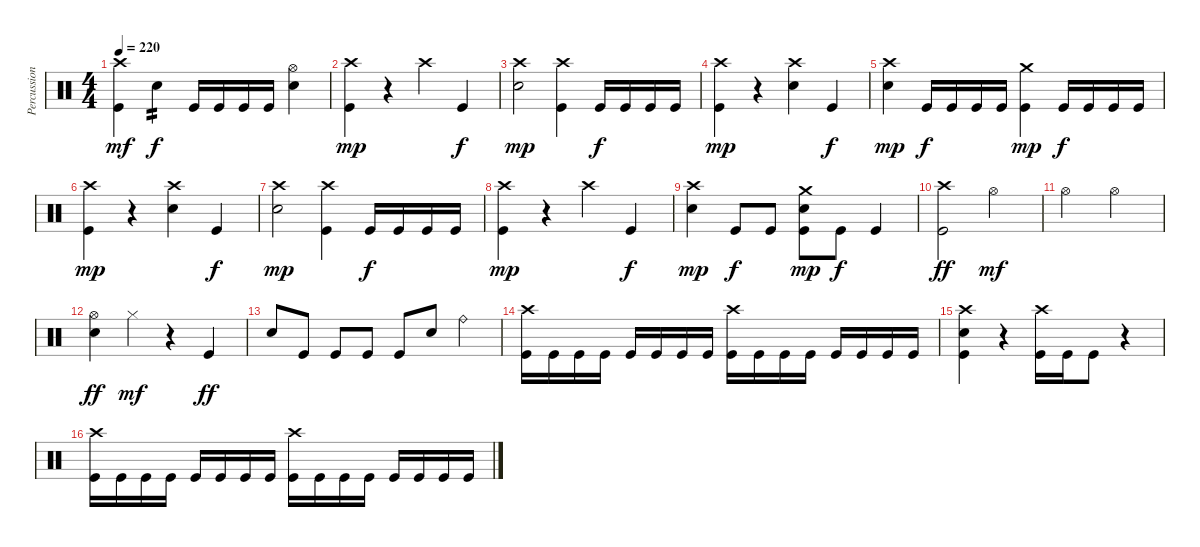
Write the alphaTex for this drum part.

\track ("Percussion" "Percussion") {instrument percussion}
\staff {score}
\articulation defaults
\ts (4 4)
\tempo 220
\clef neutral
\ks c
("Crash high (hit)" "Kick (hit)").4{dy mf} "Electric Snare (hit)".4{tp 2 dy f} "Kick (hit)".16 "Kick (hit)".16 "Kick (hit)".16 "Kick (hit)".16 ("Hi-Hat (open)" "Electric Snare (hit)").4 |
("Crash high (hit)" "Kick (hit)").4{dy mp} r.4 "Crash high (hit)".4 "Kick (hit)".4{dy f} |
("Crash high (hit)" "Electric Snare (hit)").2{dy mp} ("Crash high (hit)" "Kick (hit)").4 "Kick (hit)".16{dy f} "Kick (hit)".16 "Kick (hit)".16 "Kick (hit)".16 |
("Crash high (hit)" "Kick (hit)").4{dy mp} r.4 ("Crash high (hit)" "Electric Snare (hit)").4 "Kick (hit)".4{dy f} |
("Crash high (hit)" "Electric Snare (hit)").4{dy mp} "Kick (hit)".16{dy f} "Kick (hit)".16 "Kick (hit)".16 "Kick (hit)".16 ("Crash medium (hit)" "Kick (hit)").4{dy mp} "Kick (hit)".16{dy f} "Kick (hit)".16 "Kick (hit)".16 "Kick (hit)".16 |
("Crash high (hit)" "Kick (hit)").4{dy mp} r.4 ("Crash high (hit)" "Electric Snare (hit)").4 "Kick (hit)".4{dy f} |
("Crash high (hit)" "Electric Snare (hit)").2{dy mp} ("Crash high (hit)" "Kick (hit)").4 "Kick (hit)".16{dy f} "Kick (hit)".16 "Kick (hit)".16 "Kick (hit)".16 |
("Crash high (hit)" "Kick (hit)").4{dy mp} r.4 "Crash high (hit)".4 "Kick (hit)".4{dy f} |
("Crash high (hit)" "Electric Snare (hit)").4{dy mp} "Kick (hit)".8{dy f} "Kick (hit)".8 ("Crash medium (hit)" "Electric Snare (hit)" "Kick (hit)").8{dy mp} "Kick (hit)".8{dy f} "Kick (hit)".4 |
("Crash high (hit)" "Kick (hit)").2{dy ff} "Hi-Hat (open)".2{dy mf} |
"Hi-Hat (open)".2 "Hi-Hat (open)".2 |
("Hi-Hat (open)" "Electric Snare (hit)").4{dy ff} "Hi-Hat (closed)".4{dy mf} r.4 "Kick (hit)".4{dy ff} |
"Electric Snare (hit)".8 "Kick (hit)".8 "Kick (hit)".8 "Kick (hit)".8 "Kick (hit)".8 "Electric Snare (hit)".8 "Ride (bell)".4 |
("Crash high (hit)" "Kick (hit)").16 "Kick (hit)".16 "Kick (hit)".16 "Kick (hit)".16 "Kick (hit)".16 "Kick (hit)".16 "Kick (hit)".16 "Kick (hit)".16 ("Crash high (hit)" "Kick (hit)").16 "Kick (hit)".16 "Kick (hit)".16 "Kick (hit)".16 "Kick (hit)".16 "Kick (hit)".16 "Kick (hit)".16 "Kick (hit)".16 |
("Crash high (hit)" "Electric Snare (hit)" "Kick (hit)").4 r.4 ("Crash high (hit)" "Kick (hit)").16 "Kick (hit)".16 "Kick (hit)".8 r.4 |
("Crash high (hit)" "Kick (hit)").16 "Kick (hit)".16 "Kick (hit)".16 "Kick (hit)".16 "Kick (hit)".16 "Kick (hit)".16 "Kick (hit)".16 "Kick (hit)".16 ("Crash high (hit)" "Kick (hit)").16 "Kick (hit)".16 "Kick (hit)".16 "Kick (hit)".16 "Kick (hit)".16 "Kick (hit)".16 "Kick (hit)".16 "Kick (hit)".16
